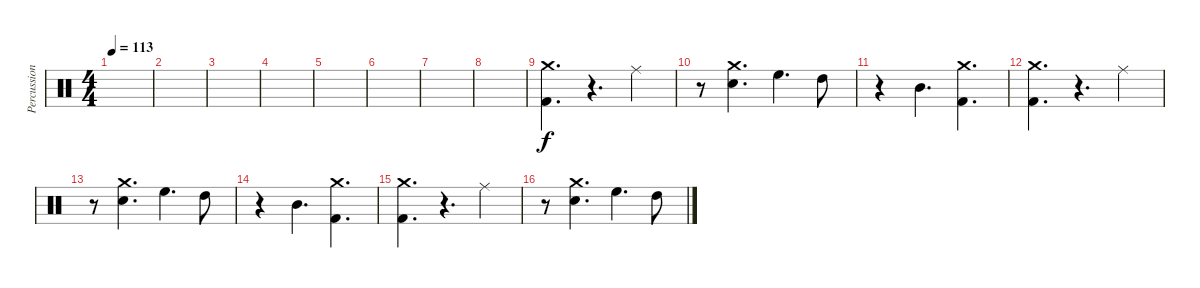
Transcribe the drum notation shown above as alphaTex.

\track ("Percussion" "Percussion") {instrument percussion}
\staff {score}
\articulation defaults
\ts (4 4)
\tempo 113
\clef neutral
\ks c
|
|
|
|
|
|
|
|
("Crash medium (hit)" "Kick (hit) 2").4{d} r.4{d} "Ride (middle)".4 |
r.8 ("Crash medium (hit)" "Electric Snare (hit)").4{d} "High Floor Tom (hit)".4{d} "High Tom (hit)".8 |
r.4 "Mid Tom (hit)".4{d} ("Crash medium (hit)" "Kick (hit) 2").4{d} |
("Crash medium (hit)" "Kick (hit) 2").4{d} r.4{d} "Ride (middle)".4 |
r.8 ("Crash medium (hit)" "Electric Snare (hit)").4{d} "High Floor Tom (hit)".4{d} "High Tom (hit)".8 |
r.4 "Mid Tom (hit)".4{d} ("Crash medium (hit)" "Kick (hit) 2").4{d} |
("Crash medium (hit)" "Kick (hit) 2").4{d} r.4{d} "Ride (middle)".4 |
r.8 ("Crash medium (hit)" "Electric Snare (hit)").4{d} "High Floor Tom (hit)".4{d} "High Tom (hit)".8
